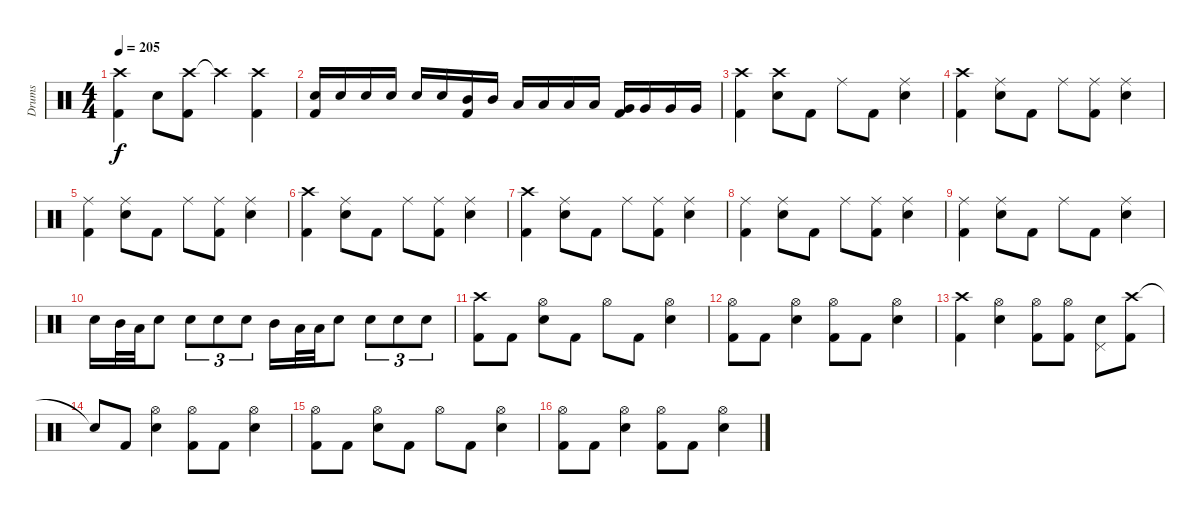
\track ("Drums" "Drums") {instrument percussion}
\staff {score}
\articulation defaults
\ts (4 4)
\tempo 205
\clef neutral
\ks c
("Crash high (hit)" "Kick (hit) 2").4{dy f} "Electric Snare (hit)".8 ("Crash high (hit)" "Kick (hit) 2").8 "Crash high (hit)"{t}.4 ("Crash high (hit)" "Kick (hit) 2").4 |
("Kick (hit) 2" "Electric Snare (hit)").16 "Electric Snare (hit)".16 "Electric Snare (hit)".16 "Electric Snare (hit)".16 "Electric Snare (hit)".16 "Electric Snare (hit)".16 ("Kick (hit) 2" "Mid Tom (hit)").16 "Mid Tom (hit)".16 "Low Tom (hit)".16 "Low Tom (hit)".16 "Low Tom (hit)".16 "Low Tom (hit)".16 ("Kick (hit) 2" "Very Low Tom (hit)").16 "Very Low Tom (hit)".16 "Very Low Tom (hit)".16 "Very Low Tom (hit)".16 |
("Crash high (hit)" "Kick (hit) 2").4 ("Crash high (hit)" "Electric Snare (hit)").8 "Kick (hit) 2".8 "Ride (middle)".8 "Kick (hit) 2".8 ("Ride (middle)" "Electric Snare (hit)").4 |
("Crash high (hit)" "Kick (hit) 2").4 ("Ride (middle)" "Electric Snare (hit)").8 "Kick (hit) 2".8 "Ride (middle)".8 ("Ride (middle)" "Kick (hit) 2").8 ("Ride (middle)" "Electric Snare (hit)").4 |
("Ride (middle)" "Kick (hit) 2").4 ("Ride (middle)" "Electric Snare (hit)").8 "Kick (hit) 2".8 "Ride (middle)".8 ("Ride (middle)" "Kick (hit) 2").8 ("Ride (middle)" "Electric Snare (hit)").4 |
("Crash high (hit)" "Kick (hit) 2").4 ("Ride (middle)" "Electric Snare (hit)").8 "Kick (hit) 2".8 "Ride (middle)".8 ("Ride (middle)" "Kick (hit) 2").8 ("Ride (middle)" "Electric Snare (hit)").4 |
("Crash high (hit)" "Kick (hit) 2").4 ("Ride (middle)" "Electric Snare (hit)").8 "Kick (hit) 2".8 "Ride (middle)".8 ("Ride (middle)" "Kick (hit) 2").8 ("Ride (middle)" "Electric Snare (hit)").4 |
("Ride (middle)" "Kick (hit) 2").4 ("Ride (middle)" "Electric Snare (hit)").8 "Kick (hit) 2".8 "Ride (middle)".8 ("Ride (middle)" "Kick (hit) 2").8 ("Ride (middle)" "Electric Snare (hit)").4 |
("Ride (middle)" "Kick (hit) 2").4 ("Ride (middle)" "Electric Snare (hit)").8 "Kick (hit) 2".8 "Ride (middle)".8 "Kick (hit) 2".8 ("Ride (middle)" "Electric Snare (hit)").4 |
"Electric Snare (hit)".16 "Mid Tom (hit)".32 "Low Tom (hit)".32 "Electric Snare (hit)".8 "Electric Snare (hit)".8{tu (3 2)} "Electric Snare (hit)".8{tu (3 2)} "Electric Snare (hit)".8{tu (3 2)} "Mid Tom (hit)".16 "Low Tom (hit)".32 "Low Tom (hit)".32 "Electric Snare (hit)".8 "Electric Snare (hit)".8{tu (3 2)} "Electric Snare (hit)".8{tu (3 2)} "Electric Snare (hit)".8{tu (3 2)} |
("Crash high (hit)" "Kick (hit) 2").8 "Kick (hit) 2".8 ("Hi-Hat (open)" "Electric Snare (hit)").8 "Kick (hit) 2".8 "Hi-Hat (open)".8 "Kick (hit) 2".8 ("Hi-Hat (open)" "Electric Snare (hit)").4 |
("Hi-Hat (open)" "Kick (hit) 2").8 "Kick (hit) 2".8 ("Hi-Hat (open)" "Electric Snare (hit)").4 ("Hi-Hat (open)" "Kick (hit) 2").8 "Kick (hit) 2".8 ("Hi-Hat (open)" "Electric Snare (hit)").4 |
("Crash high (hit)" "Kick (hit) 2").4 ("Hi-Hat (open)" "Electric Snare (hit)").4 ("Hi-Hat (open)" "Kick (hit) 2").8 ("Hi-Hat (open)" "Kick (hit) 2").8 ("Pedal Hi-Hat (hit)" "Electric Snare (hit)").8 ("Crash high (hit)" "Kick (hit) 2").8 |
"Snare (hit)"{t}.8 "Kick (hit) 2".8 ("Hi-Hat (open)" "Electric Snare (hit)").4 ("Hi-Hat (open)" "Kick (hit) 2").8 "Kick (hit) 2".8 ("Hi-Hat (open)" "Electric Snare (hit)").4 |
("Hi-Hat (open)" "Kick (hit) 2").8 "Kick (hit) 2".8 ("Hi-Hat (open)" "Electric Snare (hit)").8 "Kick (hit) 2".8 "Hi-Hat (open)".8 "Kick (hit) 2".8 ("Hi-Hat (open)" "Electric Snare (hit)").4 |
("Hi-Hat (open)" "Kick (hit) 2").8 "Kick (hit) 2".8 ("Hi-Hat (open)" "Electric Snare (hit)").4 ("Hi-Hat (open)" "Kick (hit) 2").8 "Kick (hit) 2".8 ("Hi-Hat (open)" "Electric Snare (hit)").4
